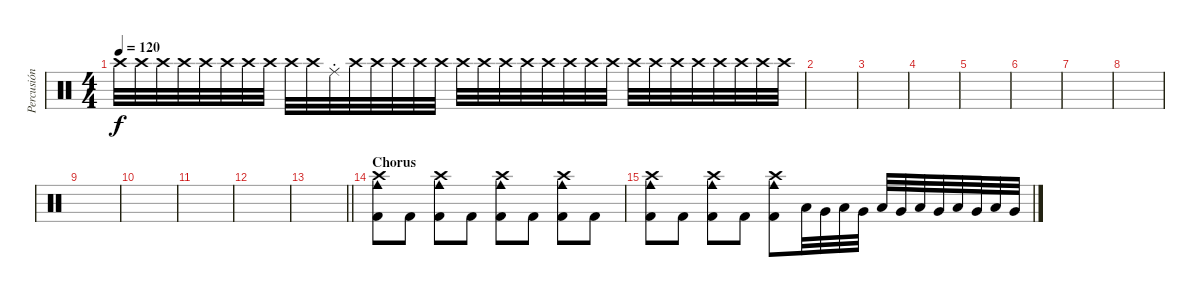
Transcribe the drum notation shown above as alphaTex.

\track ("Percusión" "Percusión") {instrument percussion}
\staff {score}
\articulation defaults
\ts (4 4)
\tempo 120
\clef neutral
\ks c "Crash high (hit)".32{dy f} "Crash high (hit)".32 "Crash high (hit)".32 "Crash high (hit)".32 "Crash high (hit)".32 "Crash high (hit)".32 "Crash high (hit)".32 "Crash high (hit)".32 "Crash high (hit)".32 "Crash high (hit)".32 "Ride (choke)".32 "Crash high (hit)".32 "Crash high (hit)".32 "Crash high (hit)".32 "Crash high (hit)".32 "Crash high (hit)".32 "Crash high (hit)".32 "Crash high (hit)".32 "Crash high (hit)".32 "Crash high (hit)".32 "Crash high (hit)".32 "Crash high (hit)".32 "Crash high (hit)".32 "Crash high (hit)".32 "Crash high (hit)".32 "Crash high (hit)".32 "Crash high (hit)".32 "Crash high (hit)".32 "Crash high (hit)".32 "Crash high (hit)".32 "Crash high (hit)".32 "Crash high (hit)".32
|
|
|
|
|
|
|
|
|
|
|
|
\barLineRight lightlight
|
\section ("" "Chorus")
("Crash high (hit)" "Cowbell medium (hit)" "Kick (hit) 2").8 "Kick (hit) 2".8 ("Crash high (hit)" "Cowbell medium (hit)" "Kick (hit) 2").8 "Kick (hit) 2".8 ("Crash high (hit)" "Cowbell medium (hit)" "Kick (hit) 2").8 "Kick (hit) 2".8 ("Crash high (hit)" "Cowbell medium (hit)" "Kick (hit) 2").8 "Kick (hit) 2".8 |
("Crash high (hit)" "Cowbell medium (hit)" "Kick (hit) 2").8 "Kick (hit) 2".8 ("Crash high (hit)" "Cowbell medium (hit)" "Kick (hit) 2").8 "Kick (hit) 2".8 ("Crash high (hit)" "Cowbell medium (hit)" "Kick (hit) 2").8 "Low Floor Tom (hit)".32 "Very Low Tom (hit)".32 "Low Floor Tom (hit)".32 "Very Low Tom (hit)".32 "Low Floor Tom (hit)".32 "Very Low Tom (hit)".32 "Low Floor Tom (hit)".32 "Very Low Tom (hit)".32 "Low Floor Tom (hit)".32 "Very Low Tom (hit)".32 "Low Floor Tom (hit)".32 "Very Low Tom (hit)".32
